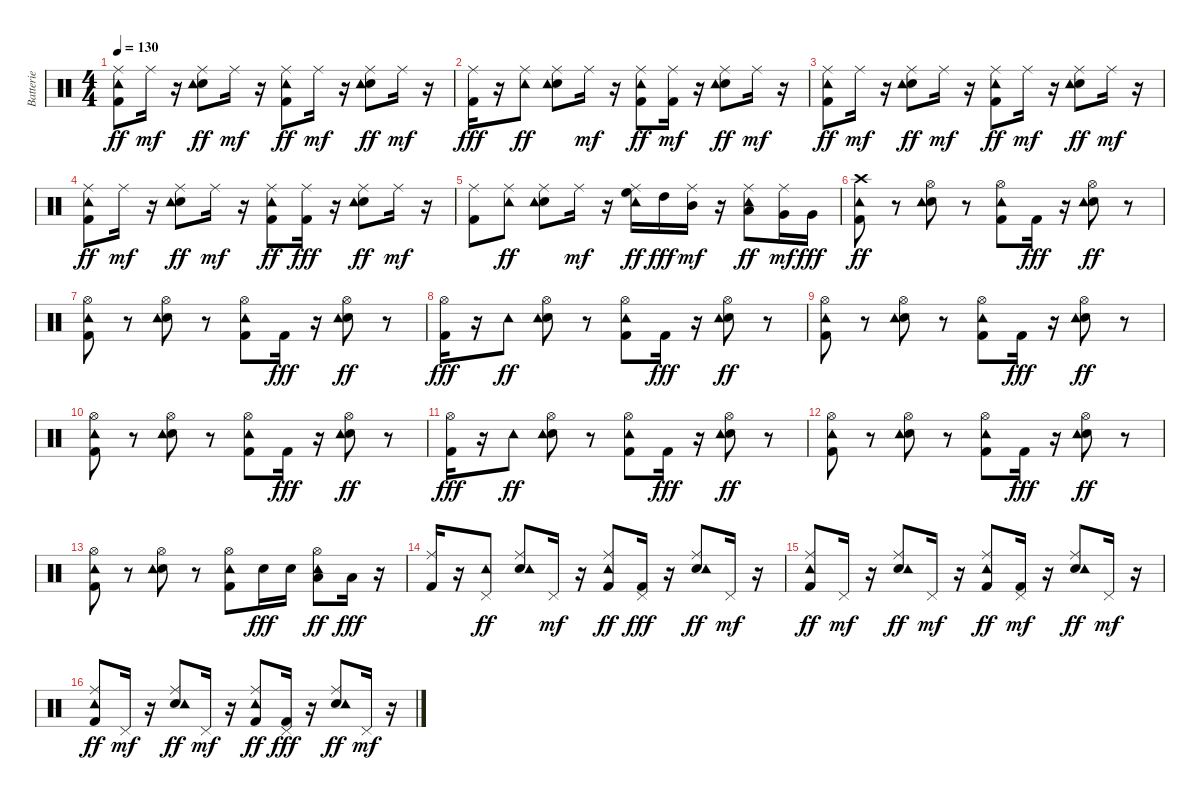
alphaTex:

\track ("Batterie" "Batterie") {instrument percussion}
\staff {score}
\articulation defaults
\ts (4 4)
\tempo 130
\clef neutral
\ks c
("Kick (hit) 2" "Ride (middle)" "Tambourine (hit)").8{dy ff} "Ride (middle)".16{dy mf} r.16 ("Snare (hit) 2" "Ride (middle)" "Tambourine (hit)").8{dy ff} "Ride (middle)".16{dy mf} r.16 ("Kick (hit) 2" "Ride (middle)" "Tambourine (hit)").8{dy ff} "Ride (middle)".16{dy mf} r.16 ("Ride (middle)" "Snare (hit) 2" "Tambourine (hit)").8{dy ff} "Ride (middle)".16{dy mf} r.16 |
("Ride (middle)" "Kick (hit) 2").16{dy fff} r.16 ("Ride (middle)" "Tambourine (hit)").8{dy ff} ("Snare (hit) 2" "Ride (middle)" "Tambourine (hit)").8 "Ride (middle)".16{dy mf} r.16 ("Kick (hit) 2" "Ride (middle)" "Tambourine (hit)").8{dy ff} ("Kick (hit) 2" "Ride (middle)").16{dy mf} r.16 ("Snare (hit) 2" "Ride (middle)" "Tambourine (hit)").8{dy ff} "Ride (middle)".16{dy mf} r.16 |
("Kick (hit) 2" "Ride (middle)" "Tambourine (hit)").8{dy ff} "Ride (middle)".16{dy mf} r.16 ("Snare (hit) 2" "Ride (middle)" "Tambourine (hit)").8{dy ff} "Ride (middle)".16{dy mf} r.16 ("Kick (hit) 2" "Ride (middle)" "Tambourine (hit)").8{dy ff} "Ride (middle)".16{dy mf} r.16 ("Ride (middle)" "Snare (hit) 2" "Tambourine (hit)").8{dy ff} "Ride (middle)".16{dy mf} r.16 |
("Ride (middle)" "Kick (hit) 2" "Tambourine (hit)").8{dy ff} "Ride (middle)".16{dy mf} r.16 ("Snare (hit) 2" "Ride (middle)" "Tambourine (hit)").8{dy ff} "Ride (middle)".16{dy mf} r.16 ("Kick (hit) 2" "Ride (middle)" "Tambourine (hit)").8{dy ff} ("Ride (middle)" "Kick (hit) 2").16{dy fff} r.16 ("Ride (middle)" "Snare (hit) 2" "Tambourine (hit)").8{dy ff} "Ride (middle)".16{dy mf} r.16 |
("Kick (hit) 2" "Ride (middle)").8 ("Ride (middle)" "Tambourine (hit)").8{dy ff} ("Ride (middle)" "Snare (hit) 2" "Tambourine (hit)").8 "Ride (middle)".16{dy mf} r.16 ("High Floor Tom (hit)" "Ride (middle)" "Tambourine (hit)").16{dy ff} "High Tom (hit)".16{dy fff} ("Mid Tom (hit)" "Ride (middle)").16{dy mf} r.16 ("Low Tom (hit)" "Ride (middle)" "Tambourine (hit)").8{dy ff} ("Very Low Tom (hit)" "Ride (middle)").16{dy mf} "Very Low Tom (hit)".16{dy fff} |
("Kick (hit) 2" "Crash high (hit)" "Tambourine (hit)").8{dy ff} r.8 ("Hi-Hat (open)" "Snare (hit) 2" "Tambourine (hit)").8 r.8 ("Kick (hit) 2" "Hi-Hat (open)" "Tambourine (hit)").8 "Kick (hit) 2".16{dy fff} r.16 ("Snare (hit) 2" "Hi-Hat (open)" "Tambourine (hit)").8{dy ff} r.8 |
("Kick (hit) 2" "Hi-Hat (open)" "Tambourine (hit)").8 r.8 ("Hi-Hat (open)" "Snare (hit) 2" "Tambourine (hit)").8 r.8 ("Kick (hit) 2" "Hi-Hat (open)" "Tambourine (hit)").8 "Kick (hit) 2".16{dy fff} r.16 ("Hi-Hat (open)" "Snare (hit) 2" "Tambourine (hit)").8{dy ff} r.8 |
("Hi-Hat (open)" "Kick (hit) 2").16{dy fff} r.16 "Tambourine (hit)".8{dy ff} ("Hi-Hat (open)" "Snare (hit) 2" "Tambourine (hit)").8 r.8 ("Kick (hit) 2" "Hi-Hat (open)" "Tambourine (hit)").8 "Kick (hit) 2".16{dy fff} r.16 ("Snare (hit) 2" "Hi-Hat (open)" "Tambourine (hit)").8{dy ff} r.8 |
("Hi-Hat (open)" "Kick (hit) 2" "Tambourine (hit)").8 r.8 ("Hi-Hat (open)" "Snare (hit) 2" "Tambourine (hit)").8 r.8 ("Kick (hit) 2" "Hi-Hat (open)" "Tambourine (hit)").8 "Kick (hit) 2".16{dy fff} r.16 ("Snare (hit) 2" "Hi-Hat (open)" "Tambourine (hit)").8{dy ff} r.8 |
("Hi-Hat (open)" "Kick (hit) 2" "Tambourine (hit)").8 r.8 ("Snare (hit) 2" "Hi-Hat (open)" "Tambourine (hit)").8 r.8 ("Kick (hit) 2" "Hi-Hat (open)" "Tambourine (hit)").8 "Kick (hit) 2".16{dy fff} r.16 ("Hi-Hat (open)" "Snare (hit) 2" "Tambourine (hit)").8{dy ff} r.8 |
("Kick (hit) 2" "Hi-Hat (open)").16{dy fff} r.16 "Tambourine (hit)".8{dy ff} ("Snare (hit) 2" "Hi-Hat (open)" "Tambourine (hit)").8 r.8 ("Kick (hit) 2" "Hi-Hat (open)" "Tambourine (hit)").8 "Kick (hit) 2".16{dy fff} r.16 ("Snare (hit) 2" "Hi-Hat (open)" "Tambourine (hit)").8{dy ff} r.8 |
("Kick (hit) 2" "Hi-Hat (open)" "Tambourine (hit)").8 r.8 ("Hi-Hat (open)" "Snare (hit) 2" "Tambourine (hit)").8 r.8 ("Kick (hit) 2" "Hi-Hat (open)" "Tambourine (hit)").8 "Kick (hit) 2".16{dy fff} r.16 ("Snare (hit) 2" "Hi-Hat (open)" "Tambourine (hit)").8{dy ff} r.8 |
("Kick (hit) 2" "Hi-Hat (open)" "Tambourine (hit)").8 r.8 ("Hi-Hat (open)" "Snare (hit) 2" "Tambourine (hit)").8 r.8 ("Kick (hit) 2" "Hi-Hat (open)" "Tambourine (hit)").8 "Snare (hit) 2".16{dy fff} "Snare (hit) 2".16 ("Low Tom (hit)" "Hi-Hat (open)" "Tambourine (hit)").8{dy ff} "Low Tom (hit)".16{dy fff} r.16 |
("Ride (middle)" "Kick (hit) 2").16 r.16 ("Pedal Hi-Hat (hit)" "Tambourine (hit)").8{dy ff} ("Ride (middle)" "Snare (hit) 2" "Tambourine (hit)").8 "Pedal Hi-Hat (hit)".16{dy mf} r.16 ("Ride (middle)" "Kick (hit) 2" "Tambourine (hit)").8{dy ff} ("Pedal Hi-Hat (hit)" "Kick (hit) 2").16{dy fff} r.16 ("Ride (middle)" "Snare (hit) 2" "Tambourine (hit)").8{dy ff} "Pedal Hi-Hat (hit)".16{dy mf} r.16 |
("Kick (hit) 2" "Ride (middle)" "Tambourine (hit)").8{dy ff} "Pedal Hi-Hat (hit)".16{dy mf} r.16 ("Snare (hit) 2" "Ride (middle)" "Tambourine (hit)").8{dy ff} "Pedal Hi-Hat (hit)".16{dy mf} r.16 ("Kick (hit) 2" "Ride (middle)" "Tambourine (hit)").8{dy ff} ("Kick (hit) 2" "Pedal Hi-Hat (hit)").16{dy mf} r.16 ("Ride (middle)" "Snare (hit) 2" "Tambourine (hit)").8{dy ff} "Pedal Hi-Hat (hit)".16{dy mf} r.16 |
("Ride (middle)" "Kick (hit) 2" "Tambourine (hit)").8{dy ff} "Pedal Hi-Hat (hit)".16{dy mf} r.16 ("Ride (middle)" "Snare (hit) 2" "Tambourine (hit)").8{dy ff} "Pedal Hi-Hat (hit)".16{dy mf} r.16 ("Ride (middle)" "Kick (hit) 2" "Tambourine (hit)").8{dy ff} ("Pedal Hi-Hat (hit)" "Kick (hit) 2").16{dy fff} r.16 ("Ride (middle)" "Snare (hit) 2" "Tambourine (hit)").8{dy ff} "Pedal Hi-Hat (hit)".16{dy mf} r.16
